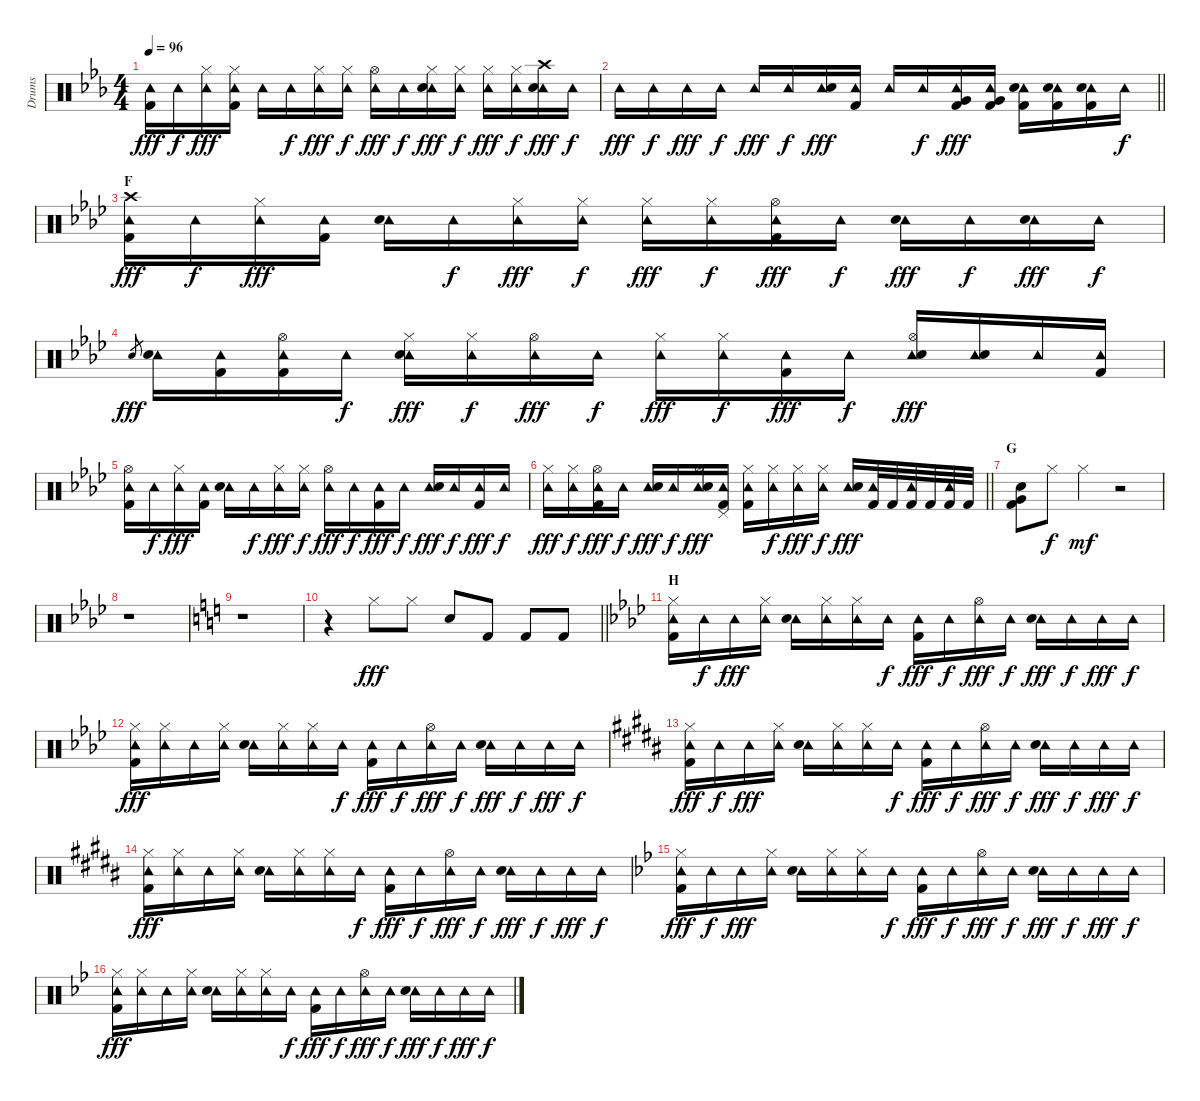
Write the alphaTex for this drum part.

\track ("Drums" "Drums") {instrument percussion}
\staff {score}
\articulation defaults
\ts (4 4)
\tempo 96
\clef neutral
\ks eb
("Tambourine (hit)" "Kick (hit) 2").16{dy fff} "Tambourine (hit)".16{dy f} ("Tambourine (hit)" "Hi-Hat (closed)").16{dy fff} ("Tambourine (hit)" "Hi-Hat (closed)" "Kick (hit) 2").16 "Tambourine (hit)".16 "Tambourine (hit)".16{dy f} ("Tambourine (hit)" "Hi-Hat (closed)").16{dy fff} ("Tambourine (hit)" "Hi-Hat (closed)").16{dy f} ("Tambourine (hit)" "Hi-Hat (open)").16{dy fff} "Tambourine (hit)".16{dy f} ("Tambourine (hit)" "Hi-Hat (closed)" "Snare (hit) 2").16{dy fff} ("Tambourine (hit)" "Hi-Hat (closed)").16{dy f} ("Tambourine (hit)" "Hi-Hat (closed)").16{dy fff} ("Tambourine (hit)" "Hi-Hat (closed)").16{dy f} ("Tambourine (hit)" "Crash high (hit)" "Snare (hit) 2").16{dy fff} "Tambourine (hit)".16{dy f} |
\barLineRight lightlight "Tambourine (hit)".16{dy fff} "Tambourine (hit)".16{dy f} "Tambourine (hit)".16{dy fff} "Tambourine (hit)".16{dy f} "Tambourine (hit)".16{dy fff} "Tambourine (hit)".16{dy f}
("Tambourine (hit)" "Snare (hit) 2").16{dy fff} ("Tambourine (hit)" "Kick (hit) 2").16 "Tambourine (hit)".16 "Tambourine (hit)".16{dy f} ("Tambourine (hit)" "Very Low Tom (hit)" "Kick (hit) 2").16{dy fff} ("Tambourine (hit)" "Very Low Tom (hit)" "Kick (hit) 2").16 ("Tambourine (hit)" "Snare (hit) 2" "Kick (hit) 2").16 ("Tambourine (hit)" "Snare (hit) 2" "Kick (hit) 2").16 ("Tambourine (hit)" "Snare (hit) 2" "Kick (hit) 2").16 "Tambourine (hit)".16{dy f} |
\section ("" "F")
\ks ab
("Tambourine (hit)" "Crash high (hit)" "Kick (hit) 2").16{dy fff} "Tambourine (hit)".16{dy f} ("Tambourine (hit)" "Hi-Hat (closed)").16{dy fff} ("Tambourine (hit)" "Kick (hit) 2").16 ("Tambourine (hit)" "Snare (hit) 2").16 "Tambourine (hit)".16{dy f} ("Tambourine (hit)" "Hi-Hat (closed)").16{dy fff} ("Tambourine (hit)" "Hi-Hat (closed)").16{dy f} ("Tambourine (hit)" "Hi-Hat (closed)").16{dy fff} ("Tambourine (hit)" "Hi-Hat (closed)").16{dy f} ("Tambourine (hit)" "Hi-Hat (open)" "Kick (hit) 2").16{dy fff} "Tambourine (hit)".16{dy f} ("Tambourine (hit)" "Snare (hit) 2").16{dy fff} "Tambourine (hit)".16{dy f} ("Tambourine (hit)" "Snare (hit) 2").16{dy fff} "Tambourine (hit)".16{dy f} |
"Snare (hit) 2".8{gr dy fff} ("Tambourine (hit)" "Snare (hit) 2").16 ("Tambourine (hit)" "Kick (hit) 2").16 ("Tambourine (hit)" "Hi-Hat (open)" "Kick (hit) 2").16 "Tambourine (hit)".16{dy f} ("Tambourine (hit)" "Hi-Hat (closed)" "Snare (hit) 2").16{dy fff} ("Tambourine (hit)" "Hi-Hat (closed)").16{dy f} ("Tambourine (hit)" "Hi-Hat (open)").16{dy fff} "Tambourine (hit)".16{dy f} ("Tambourine (hit)" "Hi-Hat (closed)").16{dy fff} ("Tambourine (hit)" "Hi-Hat (closed)").16{dy f} ("Tambourine (hit)" "Kick (hit) 2").16{dy fff} "Tambourine (hit)".16{dy f} ("Tambourine (hit)" "Hi-Hat (open)" "Snare (hit) 2").16{dy fff} ("Tambourine (hit)" "Snare (hit) 2").16 "Tambourine (hit)".16 ("Tambourine (hit)" "Kick (hit) 2").16 |
("Tambourine (hit)" "Hi-Hat (open)" "Kick (hit) 2").16 "Tambourine (hit)".16{dy f} ("Tambourine (hit)" "Hi-Hat (closed)").16{dy fff} ("Tambourine (hit)" "Kick (hit) 2").16 ("Tambourine (hit)" "Snare (hit) 2").16 "Tambourine (hit)".16{dy f} ("Tambourine (hit)" "Hi-Hat (closed)").16{dy fff} ("Tambourine (hit)" "Hi-Hat (closed)").16{dy f} ("Tambourine (hit)" "Hi-Hat (open)").16{dy fff} "Tambourine (hit)".16{dy f} ("Tambourine (hit)" "Kick (hit) 2").16{dy fff} "Tambourine (hit)".16{dy f} ("Tambourine (hit)" "Snare (hit) 2").16{dy fff} "Tambourine (hit)".16{dy f} ("Tambourine (hit)" "Kick (hit) 2").16{dy fff} "Tambourine (hit)".16{dy f} |
\barLineRight lightlight
("Tambourine (hit)" "Hi-Hat (closed)").16{dy fff} ("Tambourine (hit)" "Hi-Hat (closed)").16{dy f} ("Tambourine (hit)" "Hi-Hat (open)" "Kick (hit) 2").16{dy fff} "Tambourine (hit)".16{dy f} ("Tambourine (hit)" "Snare (hit) 2").16{dy fff} "Tambourine (hit)".16{dy f} ("Tambourine (hit)" "Hi-Hat (open)" "Snare (hit) 2").16{dy fff} ("Tambourine (hit)" "Pedal Hi-Hat (hit)" "Kick (hit) 2").16 ("Tambourine (hit)" "Hi-Hat (closed)" "Kick (hit) 2").16 ("Tambourine (hit)" "Hi-Hat (closed)").16{dy f} ("Tambourine (hit)" "Hi-Hat (closed)").16{dy fff} ("Tambourine (hit)" "Hi-Hat (closed)").16{dy f} ("Tambourine (hit)" "Snare (hit) 2").16{dy fff} ("Tambourine (hit)" "Kick (hit) 2").32 "Kick (hit) 2".32 ("Tambourine (hit)" "Kick (hit) 2").32 "Kick (hit) 2".32 ("Tambourine (hit)" "Kick (hit) 2").32 "Kick (hit) 2".32 |
\section ("" "G")
("Very Low Tom (hit)" "Snare (hit) 2" "Kick (hit) 2").8 "Hi-Hat (closed)".8{dy f} "Hi-Hat (closed)".4{dy mf} r.2 |
r.1 |
\ks c
r.1 |
\barLineRight lightlight
r.4 "Hi-Hat (closed)".8{dy fff} "Hi-Hat (closed)".8 "Snare (hit) 2".8 "Kick (hit) 2".8 "Kick (hit) 2".8 "Kick (hit) 2".8 |
\section ("" "H")
\ks ab
("Tambourine (hit)" "Hi-Hat (closed)" "Kick (hit) 2").16 "Tambourine (hit)".16{dy f} "Tambourine (hit)".16{dy fff} ("Tambourine (hit)" "Hi-Hat (closed)").16 ("Tambourine (hit)" "Snare (hit) 2").16 ("Tambourine (hit)" "Hi-Hat (closed)").16 ("Tambourine (hit)" "Hi-Hat (closed)").16 "Tambourine (hit)".16{dy f} ("Tambourine (hit)" "Kick (hit) 2").16{dy fff} "Tambourine (hit)".16{dy f} ("Tambourine (hit)" "Hi-Hat (open)").16{dy fff} "Tambourine (hit)".16{dy f} ("Tambourine (hit)" "Snare (hit) 2").16{dy fff} "Tambourine (hit)".16{dy f} "Tambourine (hit)".16{dy fff} "Tambourine (hit)".16{dy f} |
("Tambourine (hit)" "Hi-Hat (closed)" "Kick (hit) 2").16{dy fff} ("Tambourine (hit)" "Hi-Hat (closed)").16 "Tambourine (hit)".16 ("Tambourine (hit)" "Hi-Hat (closed)").16 ("Tambourine (hit)" "Snare (hit) 2").16 ("Tambourine (hit)" "Hi-Hat (closed)").16 ("Tambourine (hit)" "Hi-Hat (closed)").16 "Tambourine (hit)".16{dy f} ("Tambourine (hit)" "Kick (hit) 2").16{dy fff} "Tambourine (hit)".16{dy f} ("Tambourine (hit)" "Hi-Hat (open)").16{dy fff} "Tambourine (hit)".16{dy f} ("Tambourine (hit)" "Snare (hit) 2").16{dy fff} "Tambourine (hit)".16{dy f} "Tambourine (hit)".16{dy fff} "Tambourine (hit)".16{dy f} |
\ks b
("Tambourine (hit)" "Hi-Hat (closed)" "Kick (hit) 2").16{dy fff} "Tambourine (hit)".16{dy f} "Tambourine (hit)".16{dy fff} ("Tambourine (hit)" "Hi-Hat (closed)").16 ("Tambourine (hit)" "Snare (hit) 2").16 ("Tambourine (hit)" "Hi-Hat (closed)").16 ("Tambourine (hit)" "Hi-Hat (closed)").16 "Tambourine (hit)".16{dy f} ("Tambourine (hit)" "Kick (hit) 2").16{dy fff} "Tambourine (hit)".16{dy f} ("Tambourine (hit)" "Hi-Hat (open)").16{dy fff} "Tambourine (hit)".16{dy f} ("Tambourine (hit)" "Snare (hit) 2").16{dy fff} "Tambourine (hit)".16{dy f} "Tambourine (hit)".16{dy fff} "Tambourine (hit)".16{dy f} |
("Tambourine (hit)" "Hi-Hat (closed)" "Kick (hit) 2").16{dy fff} ("Tambourine (hit)" "Hi-Hat (closed)").16 "Tambourine (hit)".16 ("Tambourine (hit)" "Hi-Hat (closed)").16 ("Tambourine (hit)" "Snare (hit) 2").16 ("Tambourine (hit)" "Hi-Hat (closed)").16 ("Tambourine (hit)" "Hi-Hat (closed)").16 "Tambourine (hit)".16{dy f} ("Tambourine (hit)" "Kick (hit) 2").16{dy fff} "Tambourine (hit)".16{dy f} ("Tambourine (hit)" "Hi-Hat (open)").16{dy fff} "Tambourine (hit)".16{dy f} ("Tambourine (hit)" "Snare (hit) 2").16{dy fff} "Tambourine (hit)".16{dy f} "Tambourine (hit)".16{dy fff} "Tambourine (hit)".16{dy f} |
\ks bb
("Tambourine (hit)" "Hi-Hat (closed)" "Kick (hit) 2").16{dy fff} "Tambourine (hit)".16{dy f} "Tambourine (hit)".16{dy fff} ("Tambourine (hit)" "Hi-Hat (closed)").16 ("Tambourine (hit)" "Snare (hit) 2").16 ("Tambourine (hit)" "Hi-Hat (closed)").16 ("Tambourine (hit)" "Hi-Hat (closed)").16 "Tambourine (hit)".16{dy f} ("Tambourine (hit)" "Kick (hit) 2").16{dy fff} "Tambourine (hit)".16{dy f} ("Tambourine (hit)" "Hi-Hat (open)").16{dy fff} "Tambourine (hit)".16{dy f} ("Tambourine (hit)" "Snare (hit) 2").16{dy fff} "Tambourine (hit)".16{dy f} "Tambourine (hit)".16{dy fff} "Tambourine (hit)".16{dy f} |
("Tambourine (hit)" "Hi-Hat (closed)" "Kick (hit) 2").16{dy fff} ("Tambourine (hit)" "Hi-Hat (closed)").16 "Tambourine (hit)".16 ("Tambourine (hit)" "Hi-Hat (closed)").16 ("Tambourine (hit)" "Snare (hit) 2").16 ("Tambourine (hit)" "Hi-Hat (closed)").16 ("Tambourine (hit)" "Hi-Hat (closed)").16 "Tambourine (hit)".16{dy f} ("Tambourine (hit)" "Kick (hit) 2").16{dy fff} "Tambourine (hit)".16{dy f} ("Tambourine (hit)" "Hi-Hat (open)").16{dy fff} "Tambourine (hit)".16{dy f} ("Tambourine (hit)" "Snare (hit) 2").16{dy fff} "Tambourine (hit)".16{dy f} "Tambourine (hit)".16{dy fff} "Tambourine (hit)".16{dy f}
